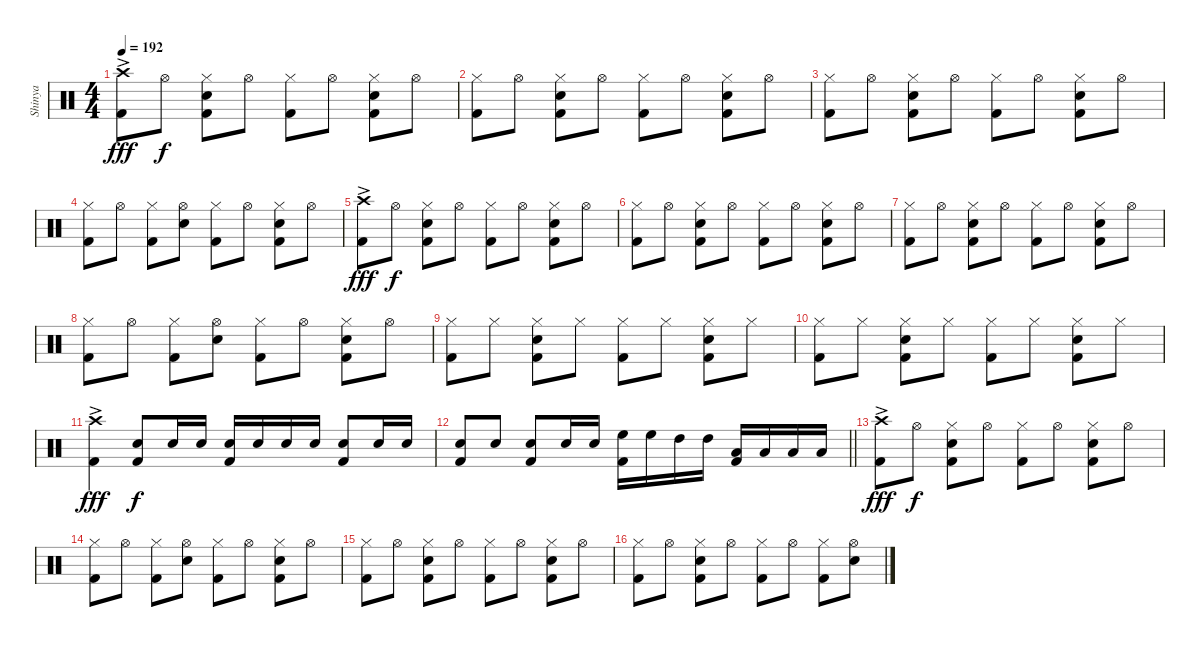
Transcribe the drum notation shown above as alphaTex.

\track ("Shinya" "Shinya") {instrument percussion}
\staff {score}
\articulation defaults
\ts (4 4)
\tempo 192
\clef neutral
\ks c
("Crash high (hit)"{ac} "Kick (hit) 2").8{dy fff} "Hi-Hat (open)".8{dy f} ("Hi-Hat (closed)" "Snare (hit) 2" "Kick (hit) 2").8 "Hi-Hat (open)".8 ("Hi-Hat (closed)" "Kick (hit) 2").8 "Hi-Hat (open)".8 ("Hi-Hat (closed)" "Snare (hit) 2" "Kick (hit) 2").8 "Hi-Hat (open)".8 |
("Hi-Hat (closed)" "Kick (hit) 2").8 "Hi-Hat (open)".8 ("Hi-Hat (closed)" "Snare (hit) 2" "Kick (hit) 2").8 "Hi-Hat (open)".8 ("Hi-Hat (closed)" "Kick (hit) 2").8 "Hi-Hat (open)".8 ("Hi-Hat (closed)" "Snare (hit) 2" "Kick (hit) 2").8 "Hi-Hat (open)".8 |
("Hi-Hat (closed)" "Kick (hit) 2").8 "Hi-Hat (open)".8 ("Hi-Hat (closed)" "Snare (hit) 2" "Kick (hit) 2").8 "Hi-Hat (open)".8 ("Hi-Hat (closed)" "Kick (hit) 2").8 "Hi-Hat (open)".8 ("Hi-Hat (closed)" "Snare (hit) 2" "Kick (hit) 2").8 "Hi-Hat (open)".8 |
("Hi-Hat (closed)" "Kick (hit) 2").8 "Hi-Hat (open)".8 ("Hi-Hat (closed)" "Kick (hit) 2").8 ("Hi-Hat (open)" "Snare (hit) 2").8 ("Hi-Hat (closed)" "Kick (hit) 2").8 "Hi-Hat (open)".8 ("Hi-Hat (closed)" "Snare (hit) 2" "Kick (hit) 2").8 "Hi-Hat (open)".8 |
("Crash high (hit)"{ac} "Kick (hit) 2").8{dy fff} "Hi-Hat (open)".8{dy f} ("Hi-Hat (closed)" "Snare (hit) 2" "Kick (hit) 2").8 "Hi-Hat (open)".8 ("Hi-Hat (closed)" "Kick (hit) 2").8 "Hi-Hat (open)".8 ("Hi-Hat (closed)" "Snare (hit) 2" "Kick (hit) 2").8 "Hi-Hat (open)".8 |
("Hi-Hat (closed)" "Kick (hit) 2").8 "Hi-Hat (open)".8 ("Hi-Hat (closed)" "Snare (hit) 2" "Kick (hit) 2").8 "Hi-Hat (open)".8 ("Hi-Hat (closed)" "Kick (hit) 2").8 "Hi-Hat (open)".8 ("Hi-Hat (closed)" "Snare (hit) 2" "Kick (hit) 2").8 "Hi-Hat (open)".8 |
("Hi-Hat (closed)" "Kick (hit) 2").8 "Hi-Hat (open)".8 ("Hi-Hat (closed)" "Snare (hit) 2" "Kick (hit) 2").8 "Hi-Hat (open)".8 ("Hi-Hat (closed)" "Kick (hit) 2").8 "Hi-Hat (open)".8 ("Hi-Hat (closed)" "Snare (hit) 2" "Kick (hit) 2").8 "Hi-Hat (open)".8 |
("Hi-Hat (closed)" "Kick (hit) 2").8 "Hi-Hat (open)".8 ("Hi-Hat (closed)" "Kick (hit) 2").8 ("Hi-Hat (open)" "Snare (hit) 2").8 ("Hi-Hat (closed)" "Kick (hit) 2").8 "Hi-Hat (open)".8 ("Hi-Hat (closed)" "Snare (hit) 2" "Kick (hit) 2").8 "Hi-Hat (open)".8 |
("Hi-Hat (closed)" "Kick (hit) 2").8 "Hi-Hat (closed)".8 ("Hi-Hat (closed)" "Snare (hit) 2" "Kick (hit) 2").8 "Hi-Hat (closed)".8 ("Hi-Hat (closed)" "Kick (hit) 2").8 "Hi-Hat (closed)".8 ("Hi-Hat (closed)" "Snare (hit) 2" "Kick (hit) 2").8 "Hi-Hat (closed)".8 |
("Hi-Hat (closed)" "Kick (hit) 2").8 "Hi-Hat (closed)".8 ("Hi-Hat (closed)" "Snare (hit) 2" "Kick (hit) 2").8 "Hi-Hat (closed)".8 ("Hi-Hat (closed)" "Kick (hit) 2").8 "Hi-Hat (closed)".8 ("Hi-Hat (closed)" "Snare (hit) 2" "Kick (hit) 2").8 "Hi-Hat (closed)".8 |
("Crash high (hit)"{ac} "Kick (hit) 2").4{dy fff} ("Snare (hit) 2" "Kick (hit) 2").8{dy f} "Snare (hit) 2".16 "Snare (hit) 2".16 ("Snare (hit) 2" "Kick (hit) 2").16 "Snare (hit) 2".16 "Snare (hit) 2".16 "Snare (hit) 2".16 ("Snare (hit) 2" "Kick (hit) 2").8 "Snare (hit) 2".16 "Snare (hit) 2".16 |
\barLineRight lightlight
("Snare (hit) 2" "Kick (hit) 2").8 "Snare (hit) 2".8 ("Snare (hit) 2" "Kick (hit) 2").8 "Snare (hit) 2".16 "Snare (hit) 2".16 ("High Floor Tom (hit)" "Kick (hit) 2").16 "High Floor Tom (hit)".16 "High Tom (hit)".16 "High Tom (hit)".16 ("Low Tom (hit)" "Kick (hit) 2").16 "Low Tom (hit)".16 "Low Tom (hit)".16 "Low Tom (hit)".16 |
("Crash high (hit)"{ac} "Kick (hit) 2").8{dy fff} "Hi-Hat (open)".8{dy f} ("Hi-Hat (closed)" "Snare (hit) 2" "Kick (hit) 2").8 "Hi-Hat (open)".8 ("Hi-Hat (closed)" "Kick (hit) 2").8 "Hi-Hat (open)".8 ("Hi-Hat (closed)" "Snare (hit) 2" "Kick (hit) 2").8 "Hi-Hat (open)".8 |
("Hi-Hat (closed)" "Kick (hit) 2").8 "Hi-Hat (open)".8 ("Hi-Hat (closed)" "Kick (hit) 2").8 ("Hi-Hat (open)" "Snare (hit) 2").8 ("Hi-Hat (closed)" "Kick (hit) 2").8 "Hi-Hat (open)".8 ("Hi-Hat (closed)" "Snare (hit) 2" "Kick (hit) 2").8 "Hi-Hat (open)".8 |
("Hi-Hat (closed)" "Kick (hit) 2").8 "Hi-Hat (open)".8 ("Hi-Hat (closed)" "Snare (hit) 2" "Kick (hit) 2").8 "Hi-Hat (open)".8 ("Hi-Hat (closed)" "Kick (hit) 2").8 "Hi-Hat (open)".8 ("Hi-Hat (closed)" "Snare (hit) 2" "Kick (hit) 2").8 "Hi-Hat (open)".8 |
("Hi-Hat (closed)" "Kick (hit) 2").8 "Hi-Hat (open)".8 ("Hi-Hat (closed)" "Snare (hit) 2" "Kick (hit) 2").8 "Hi-Hat (open)".8 ("Hi-Hat (closed)" "Kick (hit) 2").8 "Hi-Hat (open)".8 ("Hi-Hat (closed)" "Kick (hit) 2").8 ("Hi-Hat (open)" "Snare (hit) 2").8
